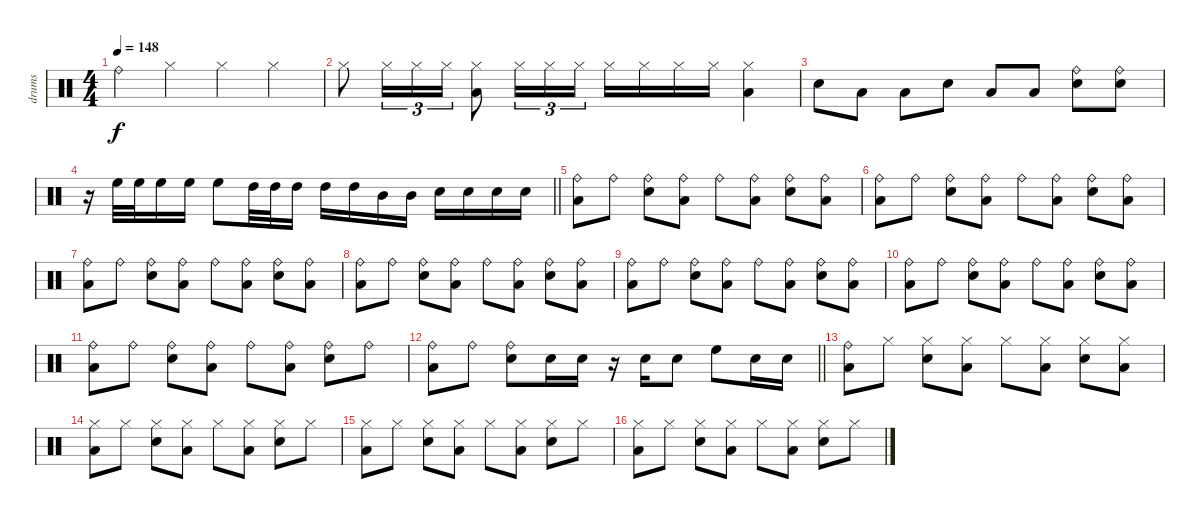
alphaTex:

\track ("drums" "drums") {instrument percussion}
\staff {score}
\articulation defaults
\ts (4 4)
\tempo 148
\clef neutral
\ks c "Ride (bell)".4{dy f} "Hi-Hat (closed)".4 "Hi-Hat (closed)".4 "Hi-Hat (closed)".4
|
"Hi-Hat (closed)".8 "Hi-Hat (closed)".16{tu (3 2)} "Hi-Hat (closed)".16{tu (3 2)} "Hi-Hat (closed)".16{tu (3 2)} ("Hi-Hat (closed)" "Low Floor Tom (hit)").8 "Hi-Hat (closed)".16{tu (3 2)} "Hi-Hat (closed)".16{tu (3 2)} "Hi-Hat (closed)".16{tu (3 2)} "Hi-Hat (closed)".16 "Hi-Hat (closed)".16 "Hi-Hat (closed)".16 "Hi-Hat (closed)".16 ("Hi-Hat (closed)" "Low Floor Tom (hit)").4 |
"Electric Snare (hit)".8 "Low Tom (hit)".8 "Low Tom (hit)".8 "Electric Snare (hit)".8 "Low Tom (hit)".8 "Low Tom (hit)".8 ("Ride (bell)" "Electric Snare (hit)").8 ("Ride (bell)" "Electric Snare (hit)").8 |
\barLineRight lightlight
r.16 "High Floor Tom (hit)".32 "High Floor Tom (hit)".32 "High Floor Tom (hit)".16 "High Floor Tom (hit)".16 "High Floor Tom (hit)".8 "High Tom (hit)".32 "High Tom (hit)".32 "High Tom (hit)".16 "High Tom (hit)".16 "High Tom (hit)".16 "Mid Tom (hit)".16 "Mid Tom (hit)".16 "Electric Snare (hit)".16 "Electric Snare (hit)".16 "Snare (hit) 2".16 "Snare (hit) 2".16 |
("Ride (bell)" "Low Floor Tom (hit)").8 "Ride (bell)".8 ("Ride (bell)" "Electric Snare (hit)").8 ("Ride (bell)" "Low Floor Tom (hit)").8 "Ride (bell)".8 ("Ride (bell)" "Low Floor Tom (hit)").8 ("Ride (bell)" "Electric Snare (hit)").8 ("Ride (bell)" "Low Floor Tom (hit)").8 |
("Ride (bell)" "Low Floor Tom (hit)").8 "Ride (bell)".8 ("Ride (bell)" "Electric Snare (hit)").8 ("Ride (bell)" "Low Floor Tom (hit)").8 "Ride (bell)".8 ("Ride (bell)" "Low Floor Tom (hit)").8 ("Ride (bell)" "Electric Snare (hit)").8 ("Ride (bell)" "Low Floor Tom (hit)").8 |
("Ride (bell)" "Low Floor Tom (hit)").8 "Ride (bell)".8 ("Ride (bell)" "Electric Snare (hit)").8 ("Ride (bell)" "Low Floor Tom (hit)").8 "Ride (bell)".8 ("Ride (bell)" "Low Floor Tom (hit)").8 ("Ride (bell)" "Electric Snare (hit)").8 ("Ride (bell)" "Low Floor Tom (hit)").8 |
("Ride (bell)" "Low Floor Tom (hit)").8 "Ride (bell)".8 ("Ride (bell)" "Electric Snare (hit)").8 ("Ride (bell)" "Low Floor Tom (hit)").8 "Ride (bell)".8 ("Ride (bell)" "Low Floor Tom (hit)").8 ("Ride (bell)" "Electric Snare (hit)").8 ("Ride (bell)" "Low Floor Tom (hit)").8 |
("Ride (bell)" "Low Floor Tom (hit)").8 "Ride (bell)".8 ("Ride (bell)" "Electric Snare (hit)").8 ("Ride (bell)" "Low Floor Tom (hit)").8 "Ride (bell)".8 ("Ride (bell)" "Low Floor Tom (hit)").8 ("Ride (bell)" "Electric Snare (hit)").8 ("Ride (bell)" "Low Floor Tom (hit)").8 |
("Ride (bell)" "Low Floor Tom (hit)").8 "Ride (bell)".8 ("Ride (bell)" "Electric Snare (hit)").8 ("Ride (bell)" "Low Floor Tom (hit)").8 "Ride (bell)".8 ("Ride (bell)" "Low Floor Tom (hit)").8 ("Ride (bell)" "Electric Snare (hit)").8 ("Ride (bell)" "Low Floor Tom (hit)").8 |
("Ride (bell)" "Low Floor Tom (hit)").8 "Ride (bell)".8 ("Ride (bell)" "Electric Snare (hit)").8 ("Ride (bell)" "Low Floor Tom (hit)").8 "Ride (bell)".8 ("Ride (bell)" "Low Floor Tom (hit)").8 ("Ride (bell)" "Electric Snare (hit)").8 "Ride (bell)".8 |
\barLineRight lightlight
("Ride (bell)" "Low Floor Tom (hit)").8 "Ride (bell)".8 ("Ride (bell)" "Electric Snare (hit)").8 "Electric Snare (hit)".16 "Electric Snare (hit)".16 r.16 "Electric Snare (hit)".16 "Electric Snare (hit)".8 "High Floor Tom (hit)".8 "Electric Snare (hit)".16 "Electric Snare (hit)".16 |
("Ride (bell)" "Low Floor Tom (hit)").8 "Hi-Hat (closed)".8 ("Hi-Hat (closed)" "Electric Snare (hit)").8 ("Hi-Hat (closed)" "Low Floor Tom (hit)").8 "Hi-Hat (closed)".8 ("Hi-Hat (closed)" "Low Floor Tom (hit)").8 ("Hi-Hat (closed)" "Electric Snare (hit)").8 ("Hi-Hat (closed)" "Low Floor Tom (hit)").8 |
("Hi-Hat (closed)" "Low Floor Tom (hit)").8 "Hi-Hat (closed)".8 ("Hi-Hat (closed)" "Electric Snare (hit)").8 ("Hi-Hat (closed)" "Low Floor Tom (hit)").8 "Hi-Hat (closed)".8 ("Hi-Hat (closed)" "Low Floor Tom (hit)").8 ("Hi-Hat (closed)" "Electric Snare (hit)").8 "Hi-Hat (closed)".8 |
("Hi-Hat (closed)" "Low Floor Tom (hit)").8 "Hi-Hat (closed)".8 ("Hi-Hat (closed)" "Electric Snare (hit)").8 ("Hi-Hat (closed)" "Low Floor Tom (hit)").8 "Hi-Hat (closed)".8 ("Hi-Hat (closed)" "Low Floor Tom (hit)").8 ("Hi-Hat (closed)" "Electric Snare (hit)").8 "Hi-Hat (closed)".8 |
("Hi-Hat (closed)" "Low Floor Tom (hit)").8 "Hi-Hat (closed)".8 ("Hi-Hat (closed)" "Electric Snare (hit)").8 ("Hi-Hat (closed)" "Low Floor Tom (hit)").8 "Hi-Hat (closed)".8 ("Hi-Hat (closed)" "Low Floor Tom (hit)").8 ("Hi-Hat (closed)" "Electric Snare (hit)").8 "Hi-Hat (closed)".8
